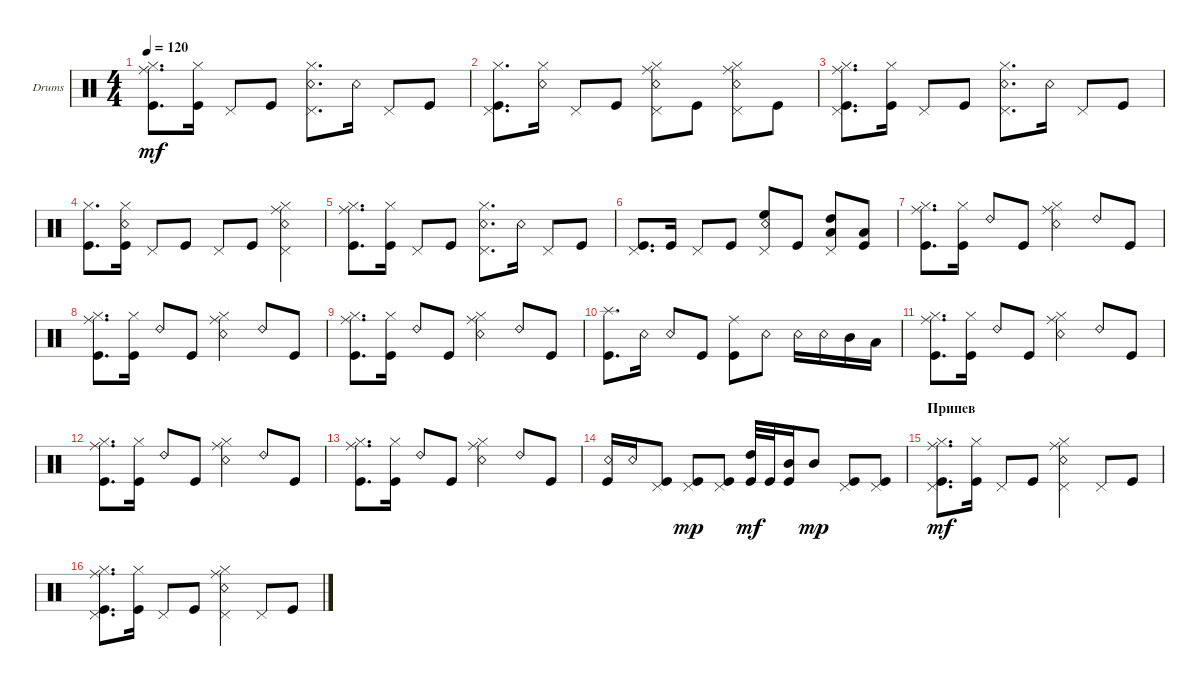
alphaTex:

\defaultSystemsLayout 4
\bracketExtendMode groupsimilarinstruments
\firstSystemTrackNameOrientation horizontal
\otherSystemsTrackNameOrientation horizontal
\track ("Drumkit" "Drums") {instrument percussion}
\staff {score}
\articulation defaults
\ts (4 4)
\tempo 120
\clef neutral
\ks c
("Kick (hit)" "Ride (middle)" "Hi-Hat (closed)").8{d dy mf} ("Kick (hit)" "Hi-Hat (closed)").16 "Pedal Hi-Hat (hit)".8 "Kick (hit)".8 ("Snare (rim shot)" "Hi-Hat (closed)" "Pedal Hi-Hat (hit)").8{d} "Snare (rim shot)".16 "Pedal Hi-Hat (hit)".8 "Kick (hit)".8 |
("Kick (hit)" "Hi-Hat (closed)" "Pedal Hi-Hat (hit)").8{d} ("Snare (rim shot)" "Hi-Hat (closed)").16 "Pedal Hi-Hat (hit)".8 "Kick (hit)".8 ("Snare (rim shot)" "Ride (middle)" "Hi-Hat (closed)" "Pedal Hi-Hat (hit)").8 "Kick (hit)".8 ("Snare (rim shot)" "Ride (middle)" "Hi-Hat (closed)" "Pedal Hi-Hat (hit)").8 "Kick (hit)".8 |
("Kick (hit)" "Ride (middle)" "Hi-Hat (closed)" "Pedal Hi-Hat (hit)").8{d} ("Kick (hit)" "Hi-Hat (closed)").16 "Pedal Hi-Hat (hit)".8 "Kick (hit)".8 ("Snare (rim shot)" "Hi-Hat (closed)" "Pedal Hi-Hat (hit)").8{d} "Snare (rim shot)".16 "Pedal Hi-Hat (hit)".8 "Kick (hit)".8 |
("Kick (hit)" "Hi-Hat (closed)").8{d} ("Kick (hit)" "Snare (rim shot)" "Hi-Hat (closed)").16 "Pedal Hi-Hat (hit)".8 "Kick (hit)".8 "Pedal Hi-Hat (hit)".8 "Kick (hit)".8 ("Snare (rim shot)" "Ride (middle)" "Hi-Hat (closed)" "Pedal Hi-Hat (hit)").4 |
("Kick (hit)" "Ride (middle)" "Hi-Hat (closed)").8{d} ("Kick (hit)" "Hi-Hat (closed)").16 "Pedal Hi-Hat (hit)".8 "Kick (hit)".8 ("Snare (rim shot)" "Hi-Hat (closed)" "Pedal Hi-Hat (hit)").8{d} "Snare (rim shot)".16 "Pedal Hi-Hat (hit)".8 "Kick (hit)".8 |
("Kick (hit)" "Pedal Hi-Hat (hit)").8{d} "Kick (hit)".16 "Pedal Hi-Hat (hit)".8 "Kick (hit)".8 ("Snare (rim shot)" "Pedal Hi-Hat (hit)" "High Floor Tom (hit)").8 "Kick (hit)".8 ("High Tom (hit)" "Pedal Hi-Hat (hit)" "Low Tom (hit)").8 ("Kick (hit)" "Low Tom (hit)").8 |
("Kick (hit)" "Ride (middle)" "Hi-Hat (closed)").8{d} ("Kick (hit)" "Hi-Hat (closed)").16 "Ride (bell) 2".8 "Kick (hit)".8 ("Snare (rim shot)" "Ride (middle)" "Hi-Hat (closed)").4 "Ride (bell) 2".8 "Kick (hit)".8 |
("Kick (hit)" "Ride (middle)" "Hi-Hat (closed)").8{d} ("Kick (hit)" "Hi-Hat (closed)").16 "Ride (bell) 2".8 "Kick (hit)".8 ("Snare (rim shot)" "Ride (middle)" "Hi-Hat (closed)").4 "Ride (bell) 2".8 "Kick (hit)".8 |
("Kick (hit)" "Ride (middle)" "Hi-Hat (closed)").8{d} ("Kick (hit)" "Hi-Hat (closed)").16 "Ride (bell) 2".8 "Kick (hit)".8 ("Snare (rim shot)" "Ride (middle)" "Hi-Hat (closed)").4 "Ride (bell) 2".8 "Kick (hit)".8 |
("Kick (hit)" "Splash (hit)").8{d} "Snare (rim shot)".16 "Snare (rim shot)".8 "Kick (hit)".8 ("Kick (hit)" "Ride (middle)").8 "Snare (rim shot)".8 "Snare (rim shot)".16 "Snare (rim shot)".16 "Mid Tom (hit)".16 "Low Tom (hit)".16 |
("Kick (hit)" "Ride (middle)" "Hi-Hat (closed)").8{d} ("Kick (hit)" "Hi-Hat (closed)").16 "Ride (bell) 2".8 "Kick (hit)".8 ("Snare (rim shot)" "Ride (middle)" "Hi-Hat (closed)").4 "Ride (bell) 2".8 "Kick (hit)".8 |
("Kick (hit)" "Ride (middle)" "Hi-Hat (closed)").8{d} ("Kick (hit)" "Hi-Hat (closed)").16 "Ride (bell) 2".8 "Kick (hit)".8 ("Snare (rim shot)" "Ride (middle)" "Hi-Hat (closed)").4 "Ride (bell) 2".8 "Kick (hit)".8 |
("Kick (hit)" "Ride (middle)" "Hi-Hat (closed)").8{d} ("Kick (hit)" "Hi-Hat (closed)").16 "Ride (bell) 2".8 "Kick (hit)".8 ("Snare (rim shot)" "Ride (middle)" "Hi-Hat (closed)").4 "Ride (bell) 2".8 "Kick (hit)".8 |
("Kick (hit)" "Snare (rim shot)").16 "Snare (rim shot)".16 ("Kick (hit)" "Pedal Hi-Hat (hit)").8 ("Kick (hit)" "Pedal Hi-Hat (hit)").8{dy mp} ("Kick (hit)" "Pedal Hi-Hat (hit)").8 ("Kick (hit)" "High Tom (hit)").32{dy mf} "Kick (hit)".32 ("Mid Tom (hit)" "Kick (hit)").16 "Mid Tom (hit)".8{dy mp} ("Kick (hit)" "Pedal Hi-Hat (hit)").8 ("Kick (hit)" "Pedal Hi-Hat (hit)").8 |
\section ("" "Припев")
("Kick (hit)" "Ride (middle)" "Hi-Hat (closed)" "Pedal Hi-Hat (hit)").8{d dy mf} ("Kick (hit)" "Hi-Hat (closed)").16 "Pedal Hi-Hat (hit)".8 "Kick (hit)".8 ("Snare (rim shot)" "Ride (middle)" "Hi-Hat (closed)" "Pedal Hi-Hat (hit)").4 "Pedal Hi-Hat (hit)".8 "Kick (hit)".8 |
("Kick (hit)" "Ride (middle)" "Hi-Hat (closed)" "Pedal Hi-Hat (hit)").8{d} ("Kick (hit)" "Hi-Hat (closed)").16 "Pedal Hi-Hat (hit)".8 "Kick (hit)".8 ("Snare (rim shot)" "Ride (middle)" "Hi-Hat (closed)" "Pedal Hi-Hat (hit)").4 "Pedal Hi-Hat (hit)".8 "Kick (hit)".8
